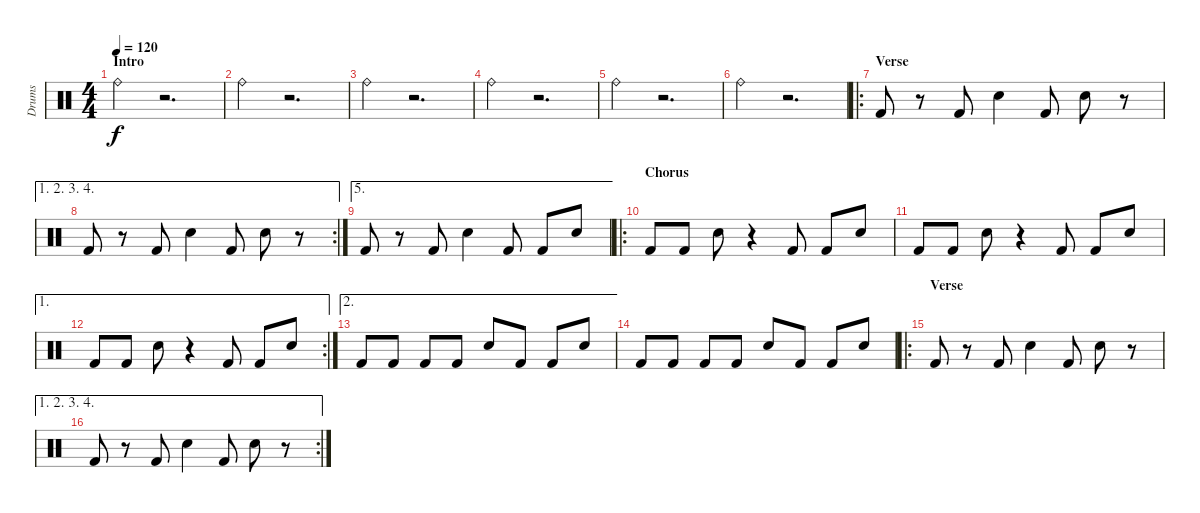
\track ("Drums" "Drums") {instrument percussion}
\staff {score}
\articulation defaults
\ts (4 4)
\section ("" "Intro")
\tempo 120
\clef neutral
\ks c "Ride (bell)".4{dy f}
r.2{d} |
"Ride (bell)".4 r.2{d} |
"Ride (bell)".4 r.2{d} |
"Ride (bell)".4 r.2{d} |
"Ride (bell)".4 r.2{d} |
"Ride (bell)".4 r.2{d} |
\ro
\section ("" "Verse")
"Kick (hit) 2".8 r.8 "Kick (hit) 2".8 "Snare (hit) 2".4 "Kick (hit) 2".8 "Snare (hit) 2".8 r.8 |
\ae (1 2 3 4)
\rc 2 "Kick (hit) 2".8
r.8 "Kick (hit) 2".8 "Snare (hit) 2".4 "Kick (hit) 2".8 "Snare (hit) 2".8 r.8 |
\ae 5 "Kick (hit) 2".8
r.8 "Kick (hit) 2".8 "Snare (hit) 2".4 "Kick (hit) 2".8 "Kick (hit) 2".8 "Snare (hit) 2".8 |
\ro
\section ("" "Chorus")
"Kick (hit) 2".8 "Kick (hit) 2".8 "Snare (hit) 2".8 r.4 "Kick (hit) 2".8 "Kick (hit) 2".8 "Snare (hit) 2".8 |
"Kick (hit) 2".8 "Kick (hit) 2".8 "Snare (hit) 2".8 r.4 "Kick (hit) 2".8 "Kick (hit) 2".8 "Snare (hit) 2".8 |
\ae 1
\rc 2 "Kick (hit) 2".8 "Kick (hit) 2".8 "Snare (hit) 2".8
r.4 "Kick (hit) 2".8 "Kick (hit) 2".8 "Snare (hit) 2".8 |
\ae 2 "Kick (hit) 2".8 "Kick (hit) 2".8 "Kick (hit) 2".8 "Kick (hit) 2".8 "Snare (hit) 2".8 "Kick (hit) 2".8 "Kick (hit) 2".8 "Snare (hit) 2".8
|
"Kick (hit) 2".8 "Kick (hit) 2".8 "Kick (hit) 2".8 "Kick (hit) 2".8 "Snare (hit) 2".8 "Kick (hit) 2".8 "Kick (hit) 2".8 "Snare (hit) 2".8 |
\ro
\section ("" "Verse")
"Kick (hit) 2".8 r.8 "Kick (hit) 2".8 "Snare (hit) 2".4 "Kick (hit) 2".8 "Snare (hit) 2".8 r.8 |
\ae (1 2 3 4)
\rc 2 "Kick (hit) 2".8
r.8 "Kick (hit) 2".8 "Snare (hit) 2".4 "Kick (hit) 2".8 "Snare (hit) 2".8 r.8
